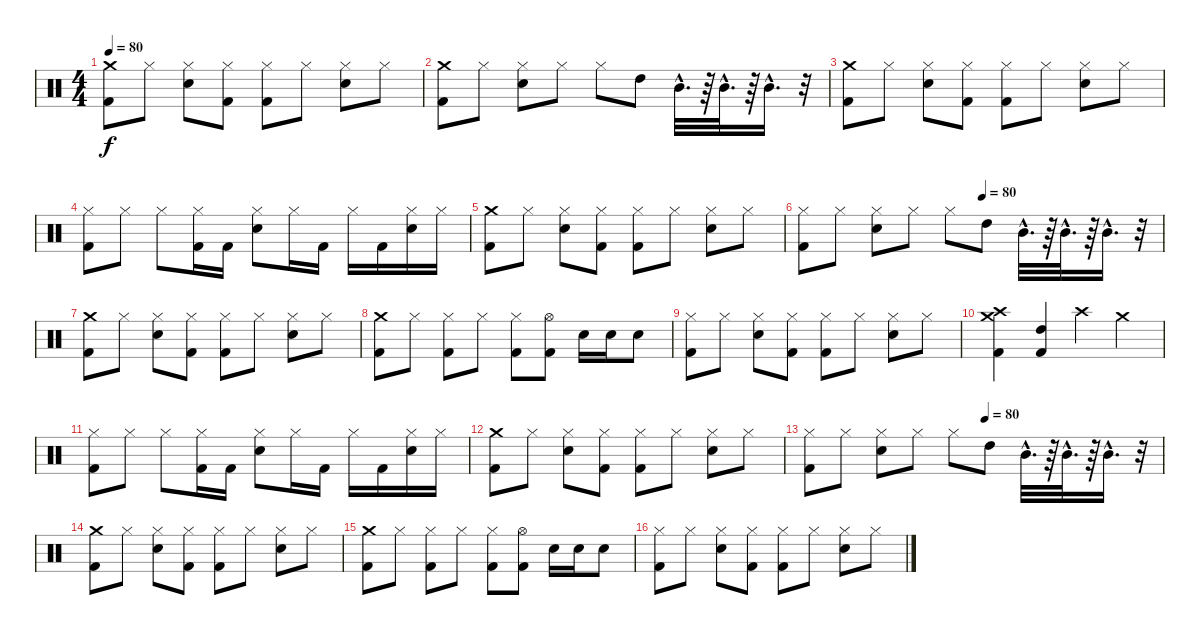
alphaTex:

\track "" {instrument percussion}
\staff {score}
\articulation defaults
\ts (4 4)
\tempo 80
\clef neutral
\ks c
("Kick (hit) 2" "Crash medium (hit)").8{dy f} "Hi-Hat (closed)".8 ("Hi-Hat (closed)" "Snare (hit) 2").8 ("Hi-Hat (closed)" "Kick (hit) 2").8 ("Kick (hit) 2" "Hi-Hat (closed)").8 "Hi-Hat (closed)".8 ("Hi-Hat (closed)" "Snare (hit) 2").8 "Hi-Hat (closed)".8 |
("Crash medium (hit)" "Kick (hit) 2").8 "Hi-Hat (closed)".8 ("Snare (hit) 2" "Hi-Hat (closed)").8 "Hi-Hat (closed)".8 "Hi-Hat (closed)".8 "High Tom (hit)".8 "Mid Tom (hit)"{hac}.32{d} r.64 "Mid Tom (hit)"{hac}.32{d} r.64 "Mid Tom (hit)"{hac}.16{d} r.32 |
("Kick (hit) 2" "Crash medium (hit)").8 "Hi-Hat (closed)".8 ("Hi-Hat (closed)" "Snare (hit) 2").8 ("Hi-Hat (closed)" "Kick (hit) 2").8 ("Kick (hit) 2" "Hi-Hat (closed)").8 "Hi-Hat (closed)".8 ("Hi-Hat (closed)" "Snare (hit) 2").8 "Hi-Hat (closed)".8 |
("Hi-Hat (closed)" "Kick (hit) 2").8 "Hi-Hat (closed)".8 "Hi-Hat (closed)".8 ("Hi-Hat (closed)" "Kick (hit) 2").16 "Kick (hit) 2".16 ("Hi-Hat (closed)" "Electric Snare (hit)").8 "Hi-Hat (closed)".16 "Kick (hit) 2".16 "Hi-Hat (closed)".16 "Kick (hit) 2".16 ("Hi-Hat (closed)" "Electric Snare (hit)").16 "Hi-Hat (closed)".16 |
("Kick (hit) 2" "Crash medium (hit)").8 "Hi-Hat (closed)".8 ("Hi-Hat (closed)" "Snare (hit) 2").8 ("Hi-Hat (closed)" "Kick (hit) 2").8 ("Kick (hit) 2" "Hi-Hat (closed)").8 "Hi-Hat (closed)".8 ("Hi-Hat (closed)" "Snare (hit) 2").8 "Hi-Hat (closed)".8 |
\tempo (80 0.5)
("Hi-Hat (closed)" "Kick (hit) 2").8 "Hi-Hat (closed)".8 ("Snare (hit) 2" "Hi-Hat (closed)").8 "Hi-Hat (closed)".8 "Hi-Hat (closed)".8 "High Tom (hit)".8 "Mid Tom (hit)"{hac}.32{d} r.64 "Mid Tom (hit)"{hac}.32{d} r.64 "Mid Tom (hit)"{hac}.16{d} r.32 |
("Kick (hit) 2" "Crash medium (hit)").8 "Hi-Hat (closed)".8 ("Hi-Hat (closed)" "Snare (hit) 2").8 ("Hi-Hat (closed)" "Kick (hit) 2").8 ("Kick (hit) 2" "Hi-Hat (closed)").8 "Hi-Hat (closed)".8 ("Hi-Hat (closed)" "Snare (hit) 2").8 "Hi-Hat (closed)".8 |
("Crash medium (hit)" "Kick (hit) 2").8 "Hi-Hat (closed)".8 ("Hi-Hat (closed)" "Kick (hit) 2").8 "Hi-Hat (closed)".8 ("Hi-Hat (closed)" "Kick (hit) 2").8 ("Hi-Hat (open)" "Kick (hit) 2").8 "Snare (hit) 2".16 "Snare (hit) 2".16 "Snare (hit) 2".8 |
("Kick (hit) 2" "Hi-Hat (closed)").8 "Hi-Hat (closed)".8 ("Hi-Hat (closed)" "Snare (hit) 2").8 ("Hi-Hat (closed)" "Kick (hit) 2").8 ("Kick (hit) 2" "Hi-Hat (closed)").8 "Hi-Hat (closed)".8 ("Hi-Hat (closed)" "Snare (hit) 2").8 "Hi-Hat (closed)".8 |
("Crash high (hit)" "Crash medium (hit)" "Kick (hit) 2").4 ("High Tom (hit)" "Kick (hit) 2").4 "Crash high (hit)".4 "Crash medium (hit)".4 |
("Hi-Hat (closed)" "Kick (hit) 2").8 "Hi-Hat (closed)".8 "Hi-Hat (closed)".8 ("Hi-Hat (closed)" "Kick (hit) 2").16 "Kick (hit) 2".16 ("Hi-Hat (closed)" "Electric Snare (hit)").8 "Hi-Hat (closed)".16 "Kick (hit) 2".16 "Hi-Hat (closed)".16 "Kick (hit) 2".16 ("Hi-Hat (closed)" "Electric Snare (hit)").16 "Hi-Hat (closed)".16 |
("Kick (hit) 2" "Crash medium (hit)").8 "Hi-Hat (closed)".8 ("Hi-Hat (closed)" "Snare (hit) 2").8 ("Hi-Hat (closed)" "Kick (hit) 2").8 ("Kick (hit) 2" "Hi-Hat (closed)").8 "Hi-Hat (closed)".8 ("Hi-Hat (closed)" "Snare (hit) 2").8 "Hi-Hat (closed)".8 |
\tempo (80 0.5)
("Hi-Hat (closed)" "Kick (hit) 2").8 "Hi-Hat (closed)".8 ("Snare (hit) 2" "Hi-Hat (closed)").8 "Hi-Hat (closed)".8 "Hi-Hat (closed)".8 "High Tom (hit)".8 "Mid Tom (hit)"{hac}.32{d} r.64 "Mid Tom (hit)"{hac}.32{d} r.64 "Mid Tom (hit)"{hac}.16{d} r.32 |
("Kick (hit) 2" "Crash medium (hit)").8 "Hi-Hat (closed)".8 ("Hi-Hat (closed)" "Snare (hit) 2").8 ("Hi-Hat (closed)" "Kick (hit) 2").8 ("Kick (hit) 2" "Hi-Hat (closed)").8 "Hi-Hat (closed)".8 ("Hi-Hat (closed)" "Snare (hit) 2").8 "Hi-Hat (closed)".8 |
("Crash medium (hit)" "Kick (hit) 2").8 "Hi-Hat (closed)".8 ("Hi-Hat (closed)" "Kick (hit) 2").8 "Hi-Hat (closed)".8 ("Hi-Hat (closed)" "Kick (hit) 2").8 ("Hi-Hat (open)" "Kick (hit) 2").8 "Snare (hit) 2".16 "Snare (hit) 2".16 "Snare (hit) 2".8 |
("Kick (hit) 2" "Hi-Hat (closed)").8 "Hi-Hat (closed)".8 ("Hi-Hat (closed)" "Snare (hit) 2").8 ("Hi-Hat (closed)" "Kick (hit) 2").8 ("Kick (hit) 2" "Hi-Hat (closed)").8 "Hi-Hat (closed)".8 ("Hi-Hat (closed)" "Snare (hit) 2").8 "Hi-Hat (closed)".8
